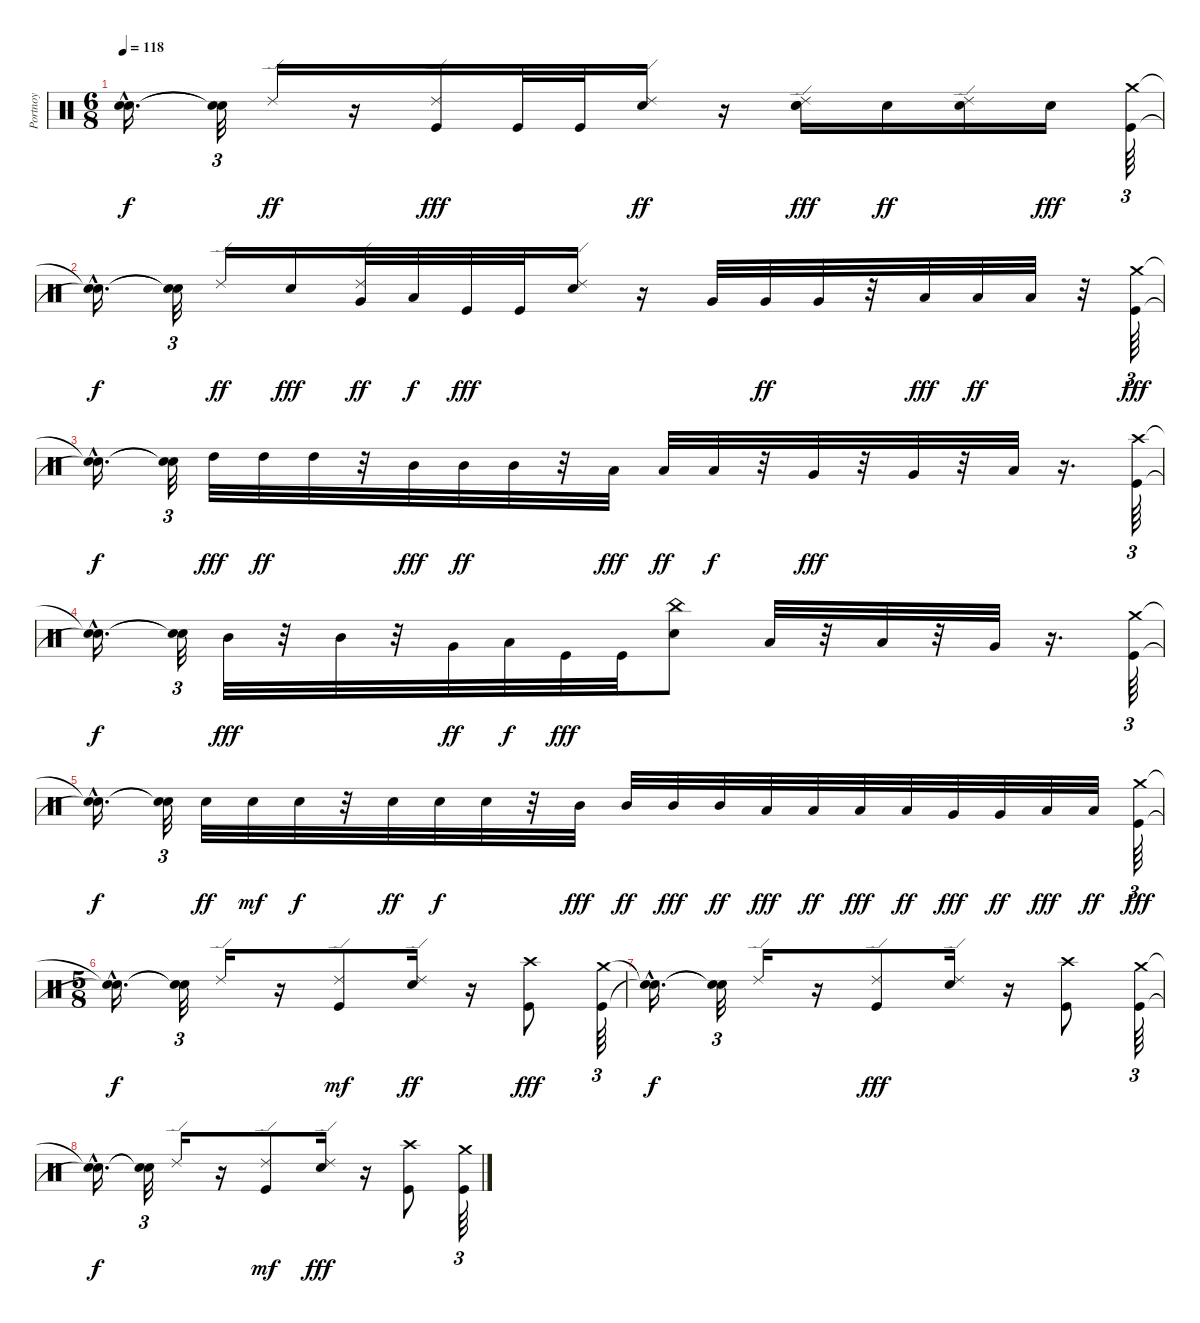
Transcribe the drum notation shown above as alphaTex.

\track ("Portnoy" "Portnoy") {instrument percussion}
\staff {score}
\articulation defaults
\ts (6 8)
\tempo 118
\clef neutral
\ks c
("Snare (hit)"{hac t} "Snare (hit)"{hac t}).16{d dy f} ("Snare (hit)"{t} "Snare (hit)"{t}).32{tu (3 2)} "Ride (edge) 2".16{dy ff} r.16 ("Kick (hit)" "Ride (edge) 2").16{dy fff} "Kick (hit)".32 "Kick (hit)".32 ("Snare (hit) 2" "Ride (edge) 2").16{dy ff} r.16 ("Snare (hit) 2" "Snare (hit) 2" "Ride (edge) 2").16{dy fff} "Snare (hit) 2".16{dy ff} ("Snare (hit) 2" "Ride (edge) 2").16 "Snare (hit) 2".16{dy fff} ("Crash medium (hit)" "Kick (hit)").64{tu (3 2)} |
("Snare (hit)"{hac t} "Snare (hit)"{hac t}).16{d dy f} ("Snare (hit)"{t} "Snare (hit)"{t}).32{tu (3 2)} "Ride (edge) 2".16{dy ff} "Snare (hit) 2".16{dy fff} ("Very Low Tom (hit)" "Ride (edge) 2").32{dy ff} "Low Floor Tom (hit)".32{dy f} "Kick (hit)".32{dy fff} "Kick (hit)".32 ("Snare (hit) 2" "Ride (edge) 2").16 r.16 "Very Low Tom (hit)".32 "Very Low Tom (hit)".32{dy ff} "Very Low Tom (hit)".32 r.32 "Low Floor Tom (hit)".32{dy fff} "Low Floor Tom (hit)".32{dy ff} "Low Floor Tom (hit)".32 r.32 ("Crash medium (hit)" "Kick (hit)").64{tu (3 2) dy fff} |
("Snare (hit)"{hac t} "Snare (hit)"{hac t}).16{d dy f} ("Snare (hit)"{t} "Snare (hit)"{t}).32{tu (3 2)} "High Tom (hit)".32{dy fff} "High Tom (hit)".32{dy ff} "High Tom (hit)".32 r.32 "Mid Tom (hit)".32{dy fff} "Mid Tom (hit)".32{dy ff} "Mid Tom (hit)".32 r.32 "Low Tom (hit)".32{dy fff} "Low Tom (hit)".32{dy ff} "Low Tom (hit)".32{dy f} r.32 "Very Low Tom (hit)".32{dy fff} r.32 "Very Low Tom (hit)".32 r.32 "Low Floor Tom (hit)".32 r.16{d} ("Kick (hit)" "Crash high (hit)").64{tu (3 2)} |
("Snare (hit)"{hac t} "Snare (hit)"{hac t}).16{d dy f} ("Snare (hit)"{t} "Snare (hit)"{t}).32{tu (3 2)} "Mid Tom (hit)".32{dy fff} r.32 "Mid Tom (hit)".32 r.32 "Very Low Tom (hit)".32{dy ff} "Low Floor Tom (hit)".32{dy f} "Kick (hit)".32{dy fff} "Kick (hit)".32 ("China (hit)" "Snare (hit) 2").8 "Low Tom (hit)".32 r.32 "Low Tom (hit)".32 r.32 "Very Low Tom (hit)".32 r.16{d} ("Kick (hit)" "Crash medium (hit)").64{tu (3 2)} |
("Snare (hit)"{hac t} "Snare (hit)"{hac t}).16{d dy f} ("Snare (hit)"{t} "Snare (hit)"{t}).32{tu (3 2)} "Snare (hit) 2".32{dy ff} "Snare (hit) 2".32{dy mf} "Snare (hit) 2".32{dy f} r.32 "Snare (hit) 2".32{dy ff} "Snare (hit) 2".32{dy f} "Snare (hit) 2".32 r.32 "Mid Tom (hit)".32{dy fff} "Mid Tom (hit)".32{dy ff} "Mid Tom (hit)".32{dy fff} "Mid Tom (hit)".32{dy ff} "Low Tom (hit)".32{dy fff} "Low Tom (hit)".32{dy ff} "Low Tom (hit)".32{dy fff} "Low Tom (hit)".32{dy ff} "Very Low Tom (hit)".32{dy fff} "Very Low Tom (hit)".32{dy ff} "Low Floor Tom (hit)".32{dy fff} "Low Floor Tom (hit)".32{dy ff} ("Crash medium (hit)" "Kick (hit)").64{tu (3 2) dy fff} |
\ts (5 8)
("Snare (hit)"{hac t} "Snare (hit)"{hac t}).16{d dy f} ("Snare (hit)"{t} "Snare (hit)"{t}).32{tu (3 2)} "Ride (edge) 2".16 r.16 ("Kick (hit)" "Ride (edge) 2").8{dy mf} ("Snare (hit) 2" "Ride (edge) 2").16{dy ff} r.16 ("Crash high (hit)" "Kick (hit)").8{dy fff} ("Kick (hit)" "Crash medium (hit)").64{tu (3 2)} |
("Snare (hit)"{hac t} "Snare (hit)"{hac t}).16{d dy f} ("Snare (hit)"{t} "Snare (hit)"{t}).32{tu (3 2)} "Ride (edge) 2".16 r.16 ("Kick (hit)" "Ride (edge) 2").8{dy fff} ("Snare (hit) 2" "Ride (edge) 2").16 r.16 ("Kick (hit)" "Crash high (hit)").8 ("Crash medium (hit)" "Kick (hit)").64{tu (3 2)} |
("Snare (hit)"{hac t} "Snare (hit)"{hac t}).16{d dy f} ("Snare (hit)"{t} "Snare (hit)"{t}).32{tu (3 2)} "Ride (edge) 2".16 r.16 ("Kick (hit)" "Ride (edge) 2").8{dy mf} ("Snare (hit) 2" "Ride (edge) 2").16{dy fff} r.16 ("Kick (hit)" "Crash high (hit)").8 ("Crash medium (hit)" "Kick (hit)").64{tu (3 2)}
